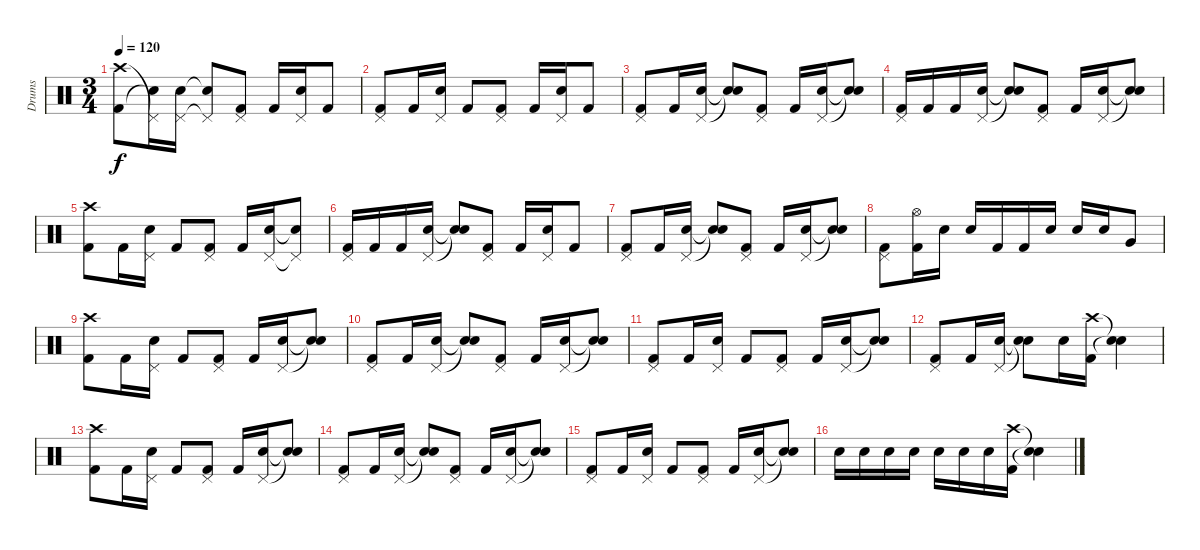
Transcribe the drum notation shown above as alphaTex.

\track ("Drums" "Drums") {instrument percussion}
\staff {score}
\articulation defaults
\ts (3 4)
\tempo 120
\clef neutral
\ks c
("Crash high (hit)" "Kick (hit) 2").8{dy f} ("Pedal Hi-Hat (hit)"{t} "Snare (hit)"{t}).16 ("Pedal Hi-Hat (hit)" "Electric Snare (hit)").16 ("Pedal Hi-Hat (hit)"{t} "Snare (hit)"{t}).8 ("Pedal Hi-Hat (hit)" "Kick (hit) 2").8 "Kick (hit) 2".16 ("Pedal Hi-Hat (hit)" "Electric Snare (hit)").16 "Kick (hit) 2".8 |
("Pedal Hi-Hat (hit)" "Kick (hit) 2").8 "Kick (hit) 2".16 ("Pedal Hi-Hat (hit)" "Electric Snare (hit)").16 "Kick (hit) 2".8 ("Pedal Hi-Hat (hit)" "Kick (hit) 2").8 "Kick (hit) 2".16 ("Pedal Hi-Hat (hit)" "Electric Snare (hit)").16 "Kick (hit) 2".8 |
("Pedal Hi-Hat (hit)" "Kick (hit) 2").8 "Kick (hit) 2".16 ("Pedal Hi-Hat (hit)" "Electric Snare (hit)").16 ("Snare (hit)"{t} "Snare (hit)"{t}).8 ("Pedal Hi-Hat (hit)" "Kick (hit) 2").8 "Kick (hit) 2".16 ("Pedal Hi-Hat (hit)" "Electric Snare (hit)").16 ("Snare (hit)"{t} "Snare (hit)"{t}).8 |
("Pedal Hi-Hat (hit)" "Kick (hit) 2").16 "Kick (hit) 2".16 "Kick (hit) 2".16 ("Pedal Hi-Hat (hit)" "Electric Snare (hit)").16 ("Snare (hit)"{t} "Snare (hit)"{t}).8 ("Pedal Hi-Hat (hit)" "Kick (hit) 2").8 "Kick (hit) 2".16 ("Pedal Hi-Hat (hit)" "Electric Snare (hit)").16 ("Snare (hit)"{t} "Snare (hit)"{t}).8 |
("Crash high (hit)" "Kick (hit) 2").8 "Kick (hit) 2".16 ("Pedal Hi-Hat (hit)" "Electric Snare (hit)").16 "Kick (hit) 2".8 ("Pedal Hi-Hat (hit)" "Kick (hit) 2").8 "Kick (hit) 2".16 ("Pedal Hi-Hat (hit)" "Electric Snare (hit)").16 ("Pedal Hi-Hat (hit)"{t} "Snare (hit)"{t}).8 |
("Pedal Hi-Hat (hit)" "Kick (hit) 2").16 "Kick (hit) 2".16 "Kick (hit) 2".16 ("Pedal Hi-Hat (hit)" "Electric Snare (hit)").16 ("Snare (hit)"{t} "Snare (hit)"{t}).8 ("Pedal Hi-Hat (hit)" "Kick (hit) 2").8 "Kick (hit) 2".16 ("Pedal Hi-Hat (hit)" "Electric Snare (hit)").16 "Kick (hit) 2".8 |
("Pedal Hi-Hat (hit)" "Kick (hit) 2").8 "Kick (hit) 2".16 ("Pedal Hi-Hat (hit)" "Electric Snare (hit)").16 ("Snare (hit)"{t} "Snare (hit)"{t}).8 ("Pedal Hi-Hat (hit)" "Kick (hit) 2").8 "Kick (hit) 2".16 ("Pedal Hi-Hat (hit)" "Electric Snare (hit)").16 ("Snare (hit)"{t} "Snare (hit)"{t}).8 |
("Pedal Hi-Hat (hit)" "Kick (hit) 2").8 ("Hi-Hat (open)" "Kick (hit) 2").16 "Electric Snare (hit)".16 "Electric Snare (hit)".16 "Kick (hit) 2".16 "Kick (hit) 2".16 "Electric Snare (hit)".16 "Electric Snare (hit)".16 "Electric Snare (hit)".16 "Very Low Tom (hit)".8 |
("Crash high (hit)" "Kick (hit) 2").8 "Kick (hit) 2".16 ("Pedal Hi-Hat (hit)" "Electric Snare (hit)").16 "Kick (hit) 2".8 ("Pedal Hi-Hat (hit)" "Kick (hit) 2").8 "Kick (hit) 2".16 ("Pedal Hi-Hat (hit)" "Electric Snare (hit)").16 ("Snare (hit)"{t} "Snare (hit)"{t}).8 |
("Pedal Hi-Hat (hit)" "Kick (hit) 2").8 "Kick (hit) 2".16 ("Pedal Hi-Hat (hit)" "Electric Snare (hit)").16 ("Snare (hit)"{t} "Snare (hit)"{t}).8 ("Pedal Hi-Hat (hit)" "Kick (hit) 2").8 "Kick (hit) 2".16 ("Pedal Hi-Hat (hit)" "Electric Snare (hit)").16 ("Snare (hit)"{t} "Snare (hit)"{t}).8 |
("Pedal Hi-Hat (hit)" "Kick (hit) 2").8 "Kick (hit) 2".16 ("Pedal Hi-Hat (hit)" "Electric Snare (hit)").16 "Kick (hit) 2".8 ("Pedal Hi-Hat (hit)" "Kick (hit) 2").8 "Kick (hit) 2".16 ("Pedal Hi-Hat (hit)" "Electric Snare (hit)").16 ("Snare (hit)"{t} "Snare (hit)"{t}).8 |
("Pedal Hi-Hat (hit)" "Kick (hit) 2").8 "Kick (hit) 2".16 ("Pedal Hi-Hat (hit)" "Electric Snare (hit)").16 ("Snare (hit)"{t} "Snare (hit)"{t}).8 "Electric Snare (hit)".16 ("Crash high (hit)" "Kick (hit) 2").16 ("Snare (hit)"{t} "Snare (hit)"{t}).4 |
("Crash high (hit)" "Kick (hit) 2").8 "Kick (hit) 2".16 ("Pedal Hi-Hat (hit)" "Electric Snare (hit)").16 "Kick (hit) 2".8 ("Pedal Hi-Hat (hit)" "Kick (hit) 2").8 "Kick (hit) 2".16 ("Pedal Hi-Hat (hit)" "Electric Snare (hit)").16 ("Snare (hit)"{t} "Snare (hit)"{t}).8 |
("Pedal Hi-Hat (hit)" "Kick (hit) 2").8 "Kick (hit) 2".16 ("Pedal Hi-Hat (hit)" "Electric Snare (hit)").16 ("Snare (hit)"{t} "Snare (hit)"{t}).8 ("Pedal Hi-Hat (hit)" "Kick (hit) 2").8 "Kick (hit) 2".16 ("Pedal Hi-Hat (hit)" "Electric Snare (hit)").16 ("Snare (hit)"{t} "Snare (hit)"{t}).8 |
("Pedal Hi-Hat (hit)" "Kick (hit) 2").8 "Kick (hit) 2".16 ("Pedal Hi-Hat (hit)" "Electric Snare (hit)").16 "Kick (hit) 2".8 ("Pedal Hi-Hat (hit)" "Kick (hit) 2").8 "Kick (hit) 2".16 ("Pedal Hi-Hat (hit)" "Electric Snare (hit)").16 ("Snare (hit)"{t} "Snare (hit)"{t}).8 |
"Electric Snare (hit)".16 "Electric Snare (hit)".16 "Electric Snare (hit)".16 "Electric Snare (hit)".16 "Electric Snare (hit)".16 "Electric Snare (hit)".16 "Electric Snare (hit)".16 ("Crash high (hit)" "Kick (hit) 2").16 ("Snare (hit)"{t} "Snare (hit)"{t}).4
